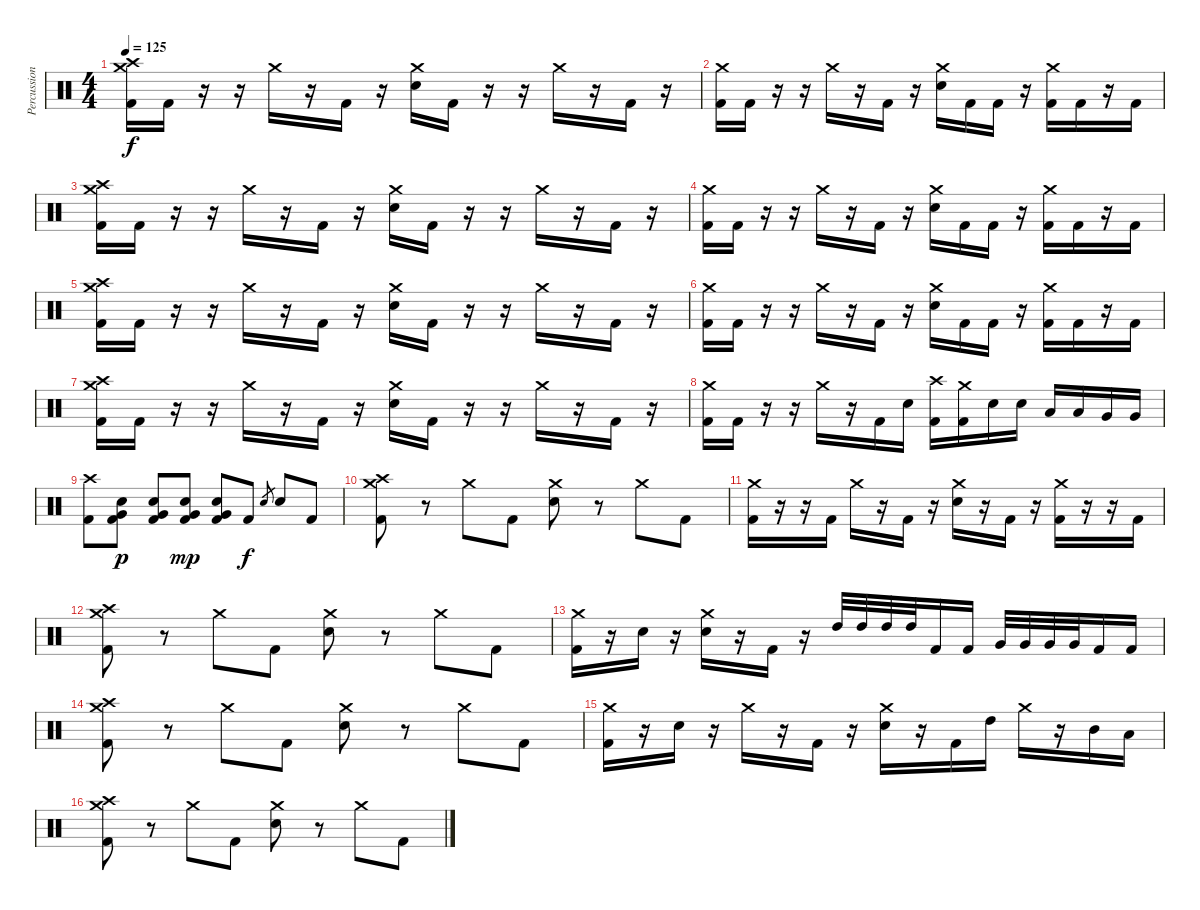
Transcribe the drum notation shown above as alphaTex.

\track ("Percussion" "Percussion") {instrument percussion}
\staff {score}
\articulation defaults
\ts (4 4)
\tempo 125
\clef neutral
\ks c
("Crash high (hit)" "Crash medium (hit)" "Kick (hit) 2").16{dy f} "Kick (hit) 2".16 r.16 r.16 "Crash medium (hit)".16 r.16 "Kick (hit) 2".16 r.16 ("Crash medium (hit)" "Electric Snare (hit)").16 "Kick (hit) 2".16 r.16 r.16 "Crash medium (hit)".16 r.16 "Kick (hit) 2".16 r.16 |
("Crash medium (hit)" "Kick (hit) 2").16 "Kick (hit) 2".16 r.16 r.16 "Crash medium (hit)".16 r.16 "Kick (hit) 2".16 r.16 ("Crash medium (hit)" "Electric Snare (hit)").16 "Kick (hit) 2".16 "Kick (hit) 2".16 r.16 ("Crash medium (hit)" "Kick (hit) 2").16 "Kick (hit) 2".16 r.16 "Kick (hit) 2".16 |
("Crash high (hit)" "Crash medium (hit)" "Kick (hit) 2").16 "Kick (hit) 2".16 r.16 r.16 "Crash medium (hit)".16 r.16 "Kick (hit) 2".16 r.16 ("Crash medium (hit)" "Electric Snare (hit)").16 "Kick (hit) 2".16 r.16 r.16 "Crash medium (hit)".16 r.16 "Kick (hit) 2".16 r.16 |
("Crash medium (hit)" "Kick (hit) 2").16 "Kick (hit) 2".16 r.16 r.16 "Crash medium (hit)".16 r.16 "Kick (hit) 2".16 r.16 ("Crash medium (hit)" "Electric Snare (hit)").16 "Kick (hit) 2".16 "Kick (hit) 2".16 r.16 ("Crash medium (hit)" "Kick (hit) 2").16 "Kick (hit) 2".16 r.16 "Kick (hit) 2".16 |
("Crash high (hit)" "Crash medium (hit)" "Kick (hit) 2").16 "Kick (hit) 2".16 r.16 r.16 "Crash medium (hit)".16 r.16 "Kick (hit) 2".16 r.16 ("Crash medium (hit)" "Electric Snare (hit)").16 "Kick (hit) 2".16 r.16 r.16 "Crash medium (hit)".16 r.16 "Kick (hit) 2".16 r.16 |
("Crash medium (hit)" "Kick (hit) 2").16 "Kick (hit) 2".16 r.16 r.16 "Crash medium (hit)".16 r.16 "Kick (hit) 2".16 r.16 ("Crash medium (hit)" "Electric Snare (hit)").16 "Kick (hit) 2".16 "Kick (hit) 2".16 r.16 ("Crash medium (hit)" "Kick (hit) 2").16 "Kick (hit) 2".16 r.16 "Kick (hit) 2".16 |
("Crash high (hit)" "Crash medium (hit)" "Kick (hit) 2").16 "Kick (hit) 2".16 r.16 r.16 "Crash medium (hit)".16 r.16 "Kick (hit) 2".16 r.16 ("Crash medium (hit)" "Electric Snare (hit)").16 "Kick (hit) 2".16 r.16 r.16 "Crash medium (hit)".16 r.16 "Kick (hit) 2".16 r.16 |
("Crash medium (hit)" "Kick (hit) 2").16 "Kick (hit) 2".16 r.16 r.16 "Crash medium (hit)".16 r.16 "Kick (hit) 2".16 "Electric Snare (hit)".16 ("Crash high (hit)" "Kick (hit) 2").16 ("Crash medium (hit)" "Kick (hit) 2").16 "Electric Snare (hit)".16 "Electric Snare (hit)".16 "Low Tom (hit)".16 "Low Tom (hit)".16 "Very Low Tom (hit)".16 "Very Low Tom (hit)".16 |
("Crash high (hit)" "Kick (hit) 2").8 ("Electric Snare (hit)" "Very Low Tom (hit)" "Kick (hit) 2").8{dy p} ("Electric Snare (hit)" "Very Low Tom (hit)" "Kick (hit) 2").8 ("Electric Snare (hit)" "Very Low Tom (hit)" "Kick (hit) 2").8{dy mp} ("Electric Snare (hit)" "Very Low Tom (hit)" "Kick (hit) 2").8 "Kick (hit) 2".8{dy f} "Electric Snare (hit)".8{gr} "Electric Snare (hit)".8 "Kick (hit) 2".8 |
("Crash high (hit)" "Crash medium (hit)" "Kick (hit) 2").8 r.8 "Crash medium (hit)".8 "Kick (hit) 2".8 ("Crash medium (hit)" "Electric Snare (hit)").8 r.8 "Crash medium (hit)".8 "Kick (hit) 2".8 |
("Crash medium (hit)" "Kick (hit) 2").16 r.16 r.16 "Kick (hit) 2".16 "Crash medium (hit)".16 r.16 "Kick (hit) 2".16 r.16 ("Crash medium (hit)" "Electric Snare (hit)").16 r.16 "Kick (hit) 2".16 r.16 ("Crash medium (hit)" "Kick (hit) 2").16 r.16 r.16 "Kick (hit) 2".16 |
("Crash high (hit)" "Crash medium (hit)" "Kick (hit) 2").8 r.8 "Crash medium (hit)".8 "Kick (hit) 2".8 ("Crash medium (hit)" "Electric Snare (hit)").8 r.8 "Crash medium (hit)".8 "Kick (hit) 2".8 |
("Crash medium (hit)" "Kick (hit) 2").16 r.16 "Electric Snare (hit)".16 r.16 ("Crash medium (hit)" "Electric Snare (hit)").16 r.16 "Kick (hit) 2".16 r.16 "High Tom (hit)".32 "High Tom (hit)".32 "High Tom (hit)".32 "High Tom (hit)".32 "Kick (hit) 2".16 "Kick (hit) 2".16 "Very Low Tom (hit)".32 "Very Low Tom (hit)".32 "Very Low Tom (hit)".32 "Very Low Tom (hit)".32 "Kick (hit) 2".16 "Kick (hit) 2".16 |
("Crash high (hit)" "Crash medium (hit)" "Kick (hit) 2").8 r.8 "Crash medium (hit)".8 "Kick (hit) 2".8 ("Crash medium (hit)" "Electric Snare (hit)").8 r.8 "Crash medium (hit)".8 "Kick (hit) 2".8 |
("Crash medium (hit)" "Kick (hit) 2").16 r.16 "Electric Snare (hit)".16 r.16 "Crash medium (hit)".16 r.16 "Kick (hit) 2".16 r.16 ("Crash medium (hit)" "Electric Snare (hit)").16 r.16 "Kick (hit) 2".16 "High Tom (hit)".16 "Crash medium (hit)".16 r.16 "Mid Tom (hit)".16 "Low Tom (hit)".16 |
("Crash high (hit)" "Crash medium (hit)" "Kick (hit) 2").8 r.8 "Crash medium (hit)".8 "Kick (hit) 2".8 ("Crash medium (hit)" "Electric Snare (hit)").8 r.8 "Crash medium (hit)".8 "Kick (hit) 2".8
